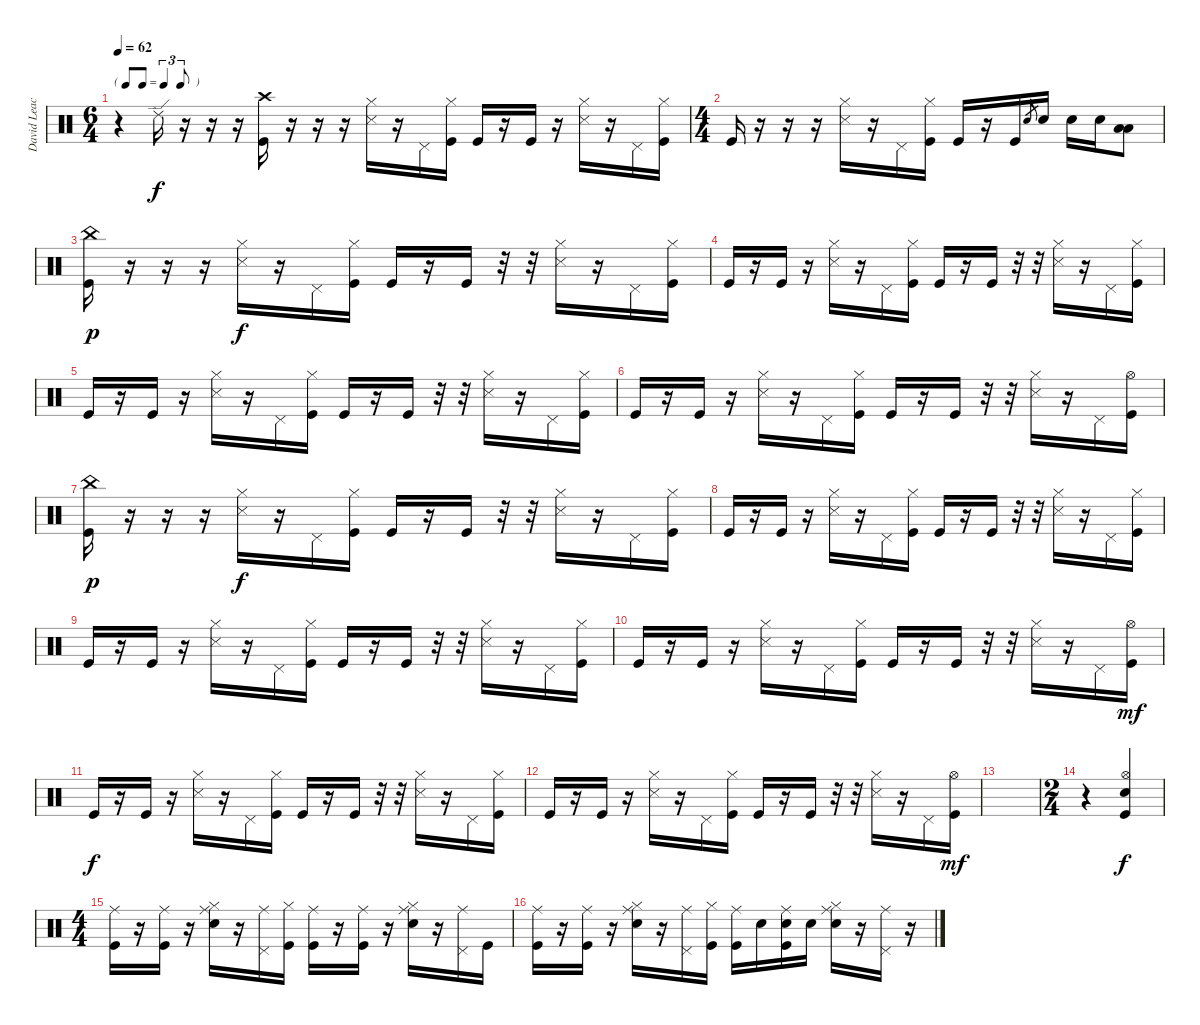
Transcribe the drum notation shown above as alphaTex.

\track ("David Leach-(Percussions)" "David Leac") {instrument percussion}
\staff {score}
\articulation defaults
\ts (6 4)
\tf triplet8th
\tempo 62
\clef neutral
\ks c
r.4{dy f} "Ride (edge) 2".16 r.16 r.16 r.16 ("Crash high (hit)" "Kick (hit)").16{volume 8} r.16 r.16 r.16 ("Hi-Hat (closed)" "Snare (side stick) 3").16 r.16 "Pedal Hi-Hat (hit)".16 ("Hi-Hat (closed)" "Kick (hit)").16 "Kick (hit)".16 r.16 "Kick (hit)".16 r.16 ("Hi-Hat (closed)" "Snare (side stick) 3").16 r.16 "Pedal Hi-Hat (hit)".16 ("Hi-Hat (closed)" "Kick (hit)").16 |
\ts (4 4)
"Kick (hit)".16 r.16 r.16 r.16 ("Hi-Hat (closed)" "Snare (side stick) 3").16 r.16 "Pedal Hi-Hat (hit)".16 ("Hi-Hat (closed)" "Kick (hit)").16 "Kick (hit)".16 r.16 "Kick (hit)".16 "Electric Snare (hit)".8{gr} "Electric Snare (hit)".16 "Electric Snare (hit)".16 "Electric Snare (hit)".16 ("Low Tom (hit)" "Low Floor Tom (hit)").8 |
("China (hit)" "Kick (hit)").16{dy p} r.16 r.16 r.16 ("Hi-Hat (closed)" "Snare (side stick) 3").16{dy f} r.16 "Pedal Hi-Hat (hit)".16 ("Hi-Hat (closed)" "Kick (hit)").16 "Kick (hit)".16 r.16 "Kick (hit)".16 r.32 r.32 ("Hi-Hat (closed)" "Snare (side stick) 3").16 r.16 "Pedal Hi-Hat (hit)".16 ("Hi-Hat (closed)" "Kick (hit)").16 |
"Kick (hit)".16 r.16 "Kick (hit)".16 r.16 ("Hi-Hat (closed)" "Snare (side stick) 3").16 r.16 "Pedal Hi-Hat (hit)".16 ("Hi-Hat (closed)" "Kick (hit)").16 "Kick (hit)".16 r.16 "Kick (hit)".16 r.32 r.32 ("Hi-Hat (closed)" "Snare (side stick) 3").16 r.16 "Pedal Hi-Hat (hit)".16 ("Hi-Hat (closed)" "Kick (hit)").16 |
"Kick (hit)".16 r.16 "Kick (hit)".16 r.16 ("Hi-Hat (closed)" "Snare (side stick) 3").16 r.16 "Pedal Hi-Hat (hit)".16 ("Hi-Hat (closed)" "Kick (hit)").16 "Kick (hit)".16 r.16 "Kick (hit)".16 r.32 r.32 ("Hi-Hat (closed)" "Snare (side stick) 3").16 r.16 "Pedal Hi-Hat (hit)".16 ("Hi-Hat (closed)" "Kick (hit)").16 |
"Kick (hit)".16 r.16 "Kick (hit)".16 r.16 ("Hi-Hat (closed)" "Snare (side stick) 3").16 r.16 "Pedal Hi-Hat (hit)".16 ("Hi-Hat (closed)" "Kick (hit)").16 "Kick (hit)".16 r.16 "Kick (hit)".16 r.32 r.32 ("Hi-Hat (closed)" "Snare (side stick) 3").16 r.16 "Pedal Hi-Hat (hit)".16 ("Hi-Hat (open)" "Kick (hit)").16 |
("China (hit)" "Kick (hit)").16{dy p} r.16 r.16 r.16 ("Hi-Hat (closed)" "Snare (side stick) 3").16{dy f} r.16 "Pedal Hi-Hat (hit)".16 ("Hi-Hat (closed)" "Kick (hit)").16 "Kick (hit)".16 r.16 "Kick (hit)".16 r.32 r.32 ("Hi-Hat (closed)" "Snare (side stick) 3").16 r.16 "Pedal Hi-Hat (hit)".16 ("Hi-Hat (closed)" "Kick (hit)").16 |
"Kick (hit)".16 r.16 "Kick (hit)".16 r.16 ("Hi-Hat (closed)" "Snare (side stick) 3").16 r.16 "Pedal Hi-Hat (hit)".16 ("Hi-Hat (closed)" "Kick (hit)").16 "Kick (hit)".16 r.16 "Kick (hit)".16 r.32 r.32 ("Hi-Hat (closed)" "Snare (side stick) 3").16 r.16 "Pedal Hi-Hat (hit)".16 ("Hi-Hat (closed)" "Kick (hit)").16 |
"Kick (hit)".16 r.16 "Kick (hit)".16 r.16 ("Hi-Hat (closed)" "Snare (side stick) 3").16 r.16 "Pedal Hi-Hat (hit)".16 ("Hi-Hat (closed)" "Kick (hit)").16 "Kick (hit)".16 r.16 "Kick (hit)".16 r.32 r.32 ("Hi-Hat (closed)" "Snare (side stick) 3").16 r.16 "Pedal Hi-Hat (hit)".16 ("Hi-Hat (closed)" "Kick (hit)").16 |
"Kick (hit)".16 r.16 "Kick (hit)".16 r.16 ("Hi-Hat (closed)" "Snare (side stick) 3").16 r.16 "Pedal Hi-Hat (hit)".16 ("Hi-Hat (closed)" "Kick (hit)").16 "Kick (hit)".16 r.16 "Kick (hit)".16 r.32 r.32 ("Hi-Hat (closed)" "Snare (side stick) 3").16 r.16 "Pedal Hi-Hat (hit)".16 ("Hi-Hat (open)" "Kick (hit)").16{dy mf} |
"Kick (hit)".16{dy f} r.16 "Kick (hit)".16 r.16 ("Hi-Hat (closed)" "Snare (side stick) 3").16 r.16 "Pedal Hi-Hat (hit)".16 ("Hi-Hat (closed)" "Kick (hit)").16 "Kick (hit)".16 r.16 "Kick (hit)".16 r.32 r.32 ("Hi-Hat (closed)" "Snare (side stick) 3").16 r.16 "Pedal Hi-Hat (hit)".16 ("Hi-Hat (closed)" "Kick (hit)").16 |
"Kick (hit)".16 r.16 "Kick (hit)".16 r.16 ("Hi-Hat (closed)" "Snare (side stick) 3").16 r.16 "Pedal Hi-Hat (hit)".16 ("Hi-Hat (closed)" "Kick (hit)").16 "Kick (hit)".16 r.16 "Kick (hit)".16 r.32 r.32 ("Hi-Hat (closed)" "Snare (side stick) 3").16 r.16 "Pedal Hi-Hat (hit)".16 ("Hi-Hat (open)" "Kick (hit)").16{dy mf} |
|
\ts (2 4)
r.4 ("Hi-Hat (open)" "Snare (hit) 2" "Kick (hit)").4{dy f} |
\ts (4 4)
("Ride (middle)" "Kick (hit)").16{volume 13} r.16 ("Ride (middle)" "Kick (hit)").16 r.16 ("Ride (middle)" "Hi-Hat (closed)" "Electric Snare (hit)").16 r.16 ("Ride (middle)" "Pedal Hi-Hat (hit)").16 ("Hi-Hat (closed)" "Kick (hit)").16 ("Ride (middle)" "Kick (hit)").16 r.16 ("Ride (middle)" "Kick (hit)").16 r.16 ("Ride (middle)" "Hi-Hat (closed)" "Electric Snare (hit)").16 r.16 ("Ride (middle)" "Pedal Hi-Hat (hit)").16 "Kick (hit)".16 |
("Ride (middle)" "Kick (hit)").16{volume 13} r.16 ("Ride (middle)" "Kick (hit)").16 r.16 ("Ride (middle)" "Hi-Hat (closed)" "Electric Snare (hit)").16 r.16 ("Ride (middle)" "Pedal Hi-Hat (hit)").16 ("Hi-Hat (closed)" "Kick (hit)").16 ("Ride (middle)" "Kick (hit)").16 "Electric Snare (hit)".16 ("Ride (middle)" "Electric Snare (hit)" "Kick (hit)").16 "Electric Snare (hit)".16 ("Ride (middle)" "Hi-Hat (closed)" "Electric Snare (hit)").16 r.16 ("Ride (middle)" "Pedal Hi-Hat (hit)").16 r.16
